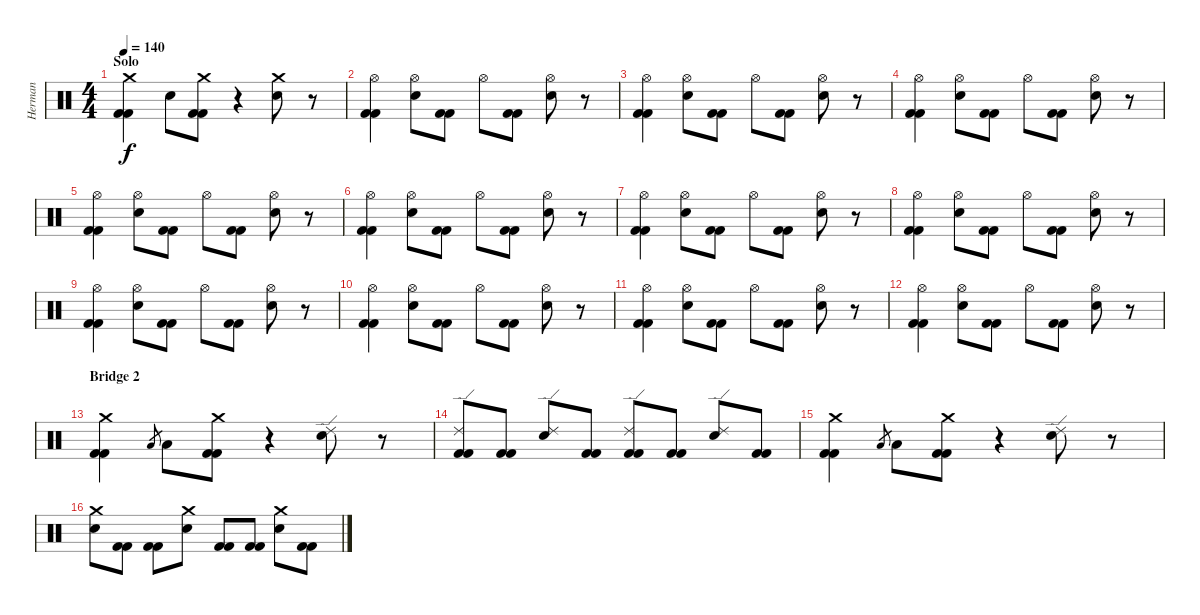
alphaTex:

\track ("Herman" "Herman") {instrument percussion}
\staff {score}
\articulation defaults
\ts (4 4)
\section ("" "Solo")
\tempo 140
\clef neutral
\ks c
("Crash medium (hit)" "Kick (hit) 2" "Kick (hit) 2").4{dy f} "Electric Snare (hit)".8 ("Crash medium (hit)" "Kick (hit) 2" "Kick (hit) 2").8 r.4 ("Electric Snare (hit)" "Crash medium (hit)").8 r.8 |
("Hi-Hat (open)" "Kick (hit) 2" "Kick (hit) 2").4 ("Electric Snare (hit)" "Hi-Hat (open)").8 ("Kick (hit) 2" "Kick (hit) 2").8 "Hi-Hat (open)".8 ("Kick (hit) 2" "Kick (hit) 2").8 ("Hi-Hat (open)" "Electric Snare (hit)").8 r.8 |
("Hi-Hat (open)" "Kick (hit) 2" "Kick (hit) 2").4 ("Electric Snare (hit)" "Hi-Hat (open)").8 ("Kick (hit) 2" "Kick (hit) 2").8 "Hi-Hat (open)".8 ("Kick (hit) 2" "Kick (hit) 2").8 ("Hi-Hat (open)" "Electric Snare (hit)").8 r.8 |
("Hi-Hat (open)" "Kick (hit) 2" "Kick (hit) 2").4 ("Electric Snare (hit)" "Hi-Hat (open)").8 ("Kick (hit) 2" "Kick (hit) 2").8 "Hi-Hat (open)".8 ("Kick (hit) 2" "Kick (hit) 2").8 ("Hi-Hat (open)" "Electric Snare (hit)").8 r.8 |
("Hi-Hat (open)" "Kick (hit) 2" "Kick (hit) 2").4 ("Electric Snare (hit)" "Hi-Hat (open)").8 ("Kick (hit) 2" "Kick (hit) 2").8 "Hi-Hat (open)".8 ("Kick (hit) 2" "Kick (hit) 2").8 ("Hi-Hat (open)" "Electric Snare (hit)").8 r.8 |
("Hi-Hat (open)" "Kick (hit) 2" "Kick (hit) 2").4 ("Electric Snare (hit)" "Hi-Hat (open)").8 ("Kick (hit) 2" "Kick (hit) 2").8 "Hi-Hat (open)".8 ("Kick (hit) 2" "Kick (hit) 2").8 ("Hi-Hat (open)" "Electric Snare (hit)").8 r.8 |
("Hi-Hat (open)" "Kick (hit) 2" "Kick (hit) 2").4 ("Electric Snare (hit)" "Hi-Hat (open)").8 ("Kick (hit) 2" "Kick (hit) 2").8 "Hi-Hat (open)".8 ("Kick (hit) 2" "Kick (hit) 2").8 ("Hi-Hat (open)" "Electric Snare (hit)").8 r.8 |
("Hi-Hat (open)" "Kick (hit) 2" "Kick (hit) 2").4 ("Electric Snare (hit)" "Hi-Hat (open)").8 ("Kick (hit) 2" "Kick (hit) 2").8 "Hi-Hat (open)".8 ("Kick (hit) 2" "Kick (hit) 2").8 ("Hi-Hat (open)" "Electric Snare (hit)").8 r.8 |
("Hi-Hat (open)" "Kick (hit) 2" "Kick (hit) 2").4 ("Electric Snare (hit)" "Hi-Hat (open)").8 ("Kick (hit) 2" "Kick (hit) 2").8 "Hi-Hat (open)".8 ("Kick (hit) 2" "Kick (hit) 2").8 ("Hi-Hat (open)" "Electric Snare (hit)").8 r.8 |
("Hi-Hat (open)" "Kick (hit) 2" "Kick (hit) 2").4 ("Electric Snare (hit)" "Hi-Hat (open)").8 ("Kick (hit) 2" "Kick (hit) 2").8 "Hi-Hat (open)".8 ("Kick (hit) 2" "Kick (hit) 2").8 ("Hi-Hat (open)" "Electric Snare (hit)").8 r.8 |
("Hi-Hat (open)" "Kick (hit) 2" "Kick (hit) 2").4 ("Electric Snare (hit)" "Hi-Hat (open)").8 ("Kick (hit) 2" "Kick (hit) 2").8 "Hi-Hat (open)".8 ("Kick (hit) 2" "Kick (hit) 2").8 ("Hi-Hat (open)" "Electric Snare (hit)").8 r.8 |
("Hi-Hat (open)" "Kick (hit) 2" "Kick (hit) 2").4 ("Electric Snare (hit)" "Hi-Hat (open)").8 ("Kick (hit) 2" "Kick (hit) 2").8 "Hi-Hat (open)".8 ("Kick (hit) 2" "Kick (hit) 2").8 ("Hi-Hat (open)" "Electric Snare (hit)").8 r.8 |
\section ("" "Bridge 2")
("Crash medium (hit)" "Kick (hit) 2" "Kick (hit) 2").4 "Low Tom (hit)".8{gr} "Low Tom (hit)".8 ("Crash medium (hit)" "Kick (hit) 2" "Kick (hit) 2").8 r.4 ("Ride (edge) 2" "Electric Snare (hit)").8 r.8 |
("Ride (edge) 2" "Kick (hit) 2" "Kick (hit) 2").8 ("Kick (hit) 2" "Kick (hit) 2").8 ("Ride (edge) 2" "Electric Snare (hit)").8 ("Kick (hit) 2" "Kick (hit) 2").8 ("Ride (edge) 2" "Kick (hit) 2" "Kick (hit) 2").8 ("Kick (hit) 2" "Kick (hit) 2").8 ("Electric Snare (hit)" "Ride (edge) 2").8 ("Kick (hit) 2" "Kick (hit) 2").8 |
("Crash medium (hit)" "Kick (hit) 2" "Kick (hit) 2").4 "Low Tom (hit)".8{gr} "Low Tom (hit)".8 ("Crash medium (hit)" "Kick (hit) 2" "Kick (hit) 2").8 r.4 ("Ride (edge) 2" "Electric Snare (hit)").8 r.8 |
("Electric Snare (hit)" "Crash medium (hit)").8 ("Kick (hit) 2" "Kick (hit) 2").8 ("Kick (hit) 2" "Kick (hit) 2").8 ("Electric Snare (hit)" "Crash medium (hit)").8 ("Kick (hit) 2" "Kick (hit) 2").8 ("Kick (hit) 2" "Kick (hit) 2").8 ("Electric Snare (hit)" "Crash medium (hit)").8 ("Kick (hit) 2" "Kick (hit) 2").8
